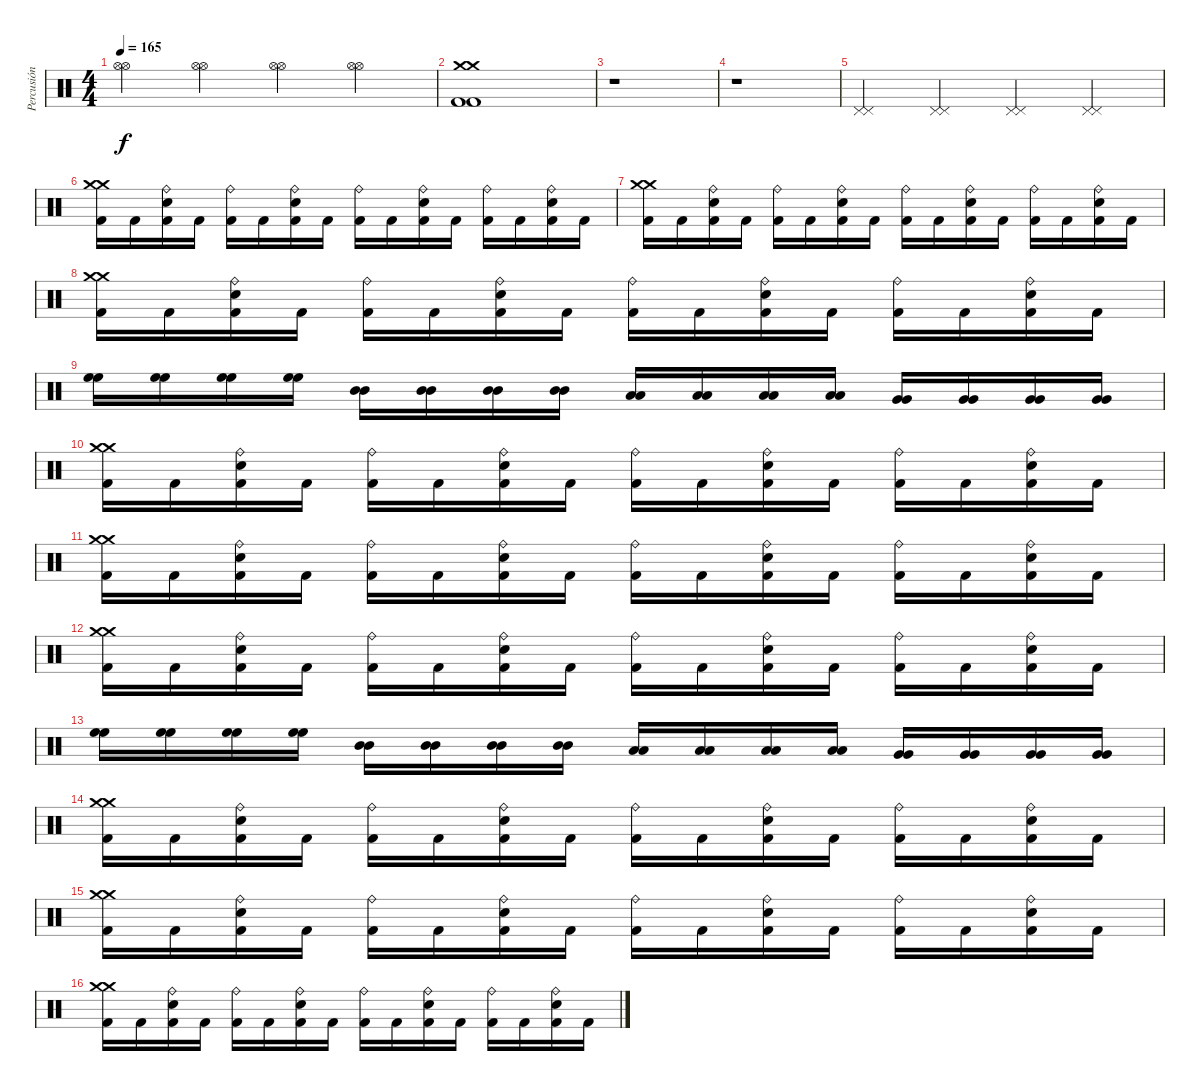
\track ("Percusión" "Percusión") {instrument percussion}
\staff {score}
\articulation defaults
\ts (4 4)
\tempo 165
\clef neutral
\ks c
("Hi-Hat (open)" "Hi-Hat (open)").4{dy f} ("Hi-Hat (open)" "Hi-Hat (open)").4 ("Hi-Hat (open)" "Hi-Hat (open)").4 ("Hi-Hat (open)" "Hi-Hat (open)").4 |
("Crash medium (hit)" "Crash medium (hit)" "Kick (hit) 2" "Kick (hit) 2").1 |
r.1 |
r.1 |
("Pedal Hi-Hat (hit)" "Pedal Hi-Hat (hit)").4 ("Pedal Hi-Hat (hit)" "Pedal Hi-Hat (hit)").4 ("Pedal Hi-Hat (hit)" "Pedal Hi-Hat (hit)").4 ("Pedal Hi-Hat (hit)" "Pedal Hi-Hat (hit)").4 |
("Crash medium (hit)" "Crash medium (hit)" "Kick (hit) 2").16 "Kick (hit) 2".16 ("Ride (bell)" "Snare (hit) 2" "Kick (hit) 2").16 "Kick (hit) 2".16 ("Ride (bell)" "Kick (hit) 2").16 "Kick (hit) 2".16 ("Ride (bell)" "Snare (hit) 2" "Kick (hit) 2").16 "Kick (hit) 2".16 ("Ride (bell)" "Kick (hit) 2").16 "Kick (hit) 2".16 ("Ride (bell)" "Snare (hit) 2" "Kick (hit) 2").16 "Kick (hit) 2".16 ("Ride (bell)" "Kick (hit) 2").16 "Kick (hit) 2".16 ("Ride (bell)" "Snare (hit) 2" "Kick (hit) 2").16 "Kick (hit) 2".16 |
("Crash medium (hit)" "Crash medium (hit)" "Kick (hit) 2").16 "Kick (hit) 2".16 ("Ride (bell)" "Snare (hit) 2" "Kick (hit) 2").16 "Kick (hit) 2".16 ("Ride (bell)" "Kick (hit) 2").16 "Kick (hit) 2".16 ("Ride (bell)" "Snare (hit) 2" "Kick (hit) 2").16 "Kick (hit) 2".16 ("Ride (bell)" "Kick (hit) 2").16 "Kick (hit) 2".16 ("Ride (bell)" "Snare (hit) 2" "Kick (hit) 2").16 "Kick (hit) 2".16 ("Ride (bell)" "Kick (hit) 2").16 "Kick (hit) 2".16 ("Ride (bell)" "Snare (hit) 2" "Kick (hit) 2").16 "Kick (hit) 2".16 |
("Crash medium (hit)" "Crash medium (hit)" "Kick (hit) 2").16 "Kick (hit) 2".16 ("Ride (bell)" "Snare (hit) 2" "Kick (hit) 2").16 "Kick (hit) 2".16 ("Ride (bell)" "Kick (hit) 2").16 "Kick (hit) 2".16 ("Ride (bell)" "Snare (hit) 2" "Kick (hit) 2").16 "Kick (hit) 2".16 ("Ride (bell)" "Kick (hit) 2").16 "Kick (hit) 2".16 ("Ride (bell)" "Snare (hit) 2" "Kick (hit) 2").16 "Kick (hit) 2".16 ("Ride (bell)" "Kick (hit) 2").16 "Kick (hit) 2".16 ("Ride (bell)" "Snare (hit) 2" "Kick (hit) 2").16 "Kick (hit) 2".16 |
("High Floor Tom (hit)" "High Floor Tom (hit)").16 ("High Floor Tom (hit)" "High Floor Tom (hit)").16 ("High Floor Tom (hit)" "High Floor Tom (hit)").16 ("High Floor Tom (hit)" "High Floor Tom (hit)").16 ("Mid Tom (hit)" "Mid Tom (hit)").16 ("Mid Tom (hit)" "Mid Tom (hit)").16 ("Mid Tom (hit)" "Mid Tom (hit)").16 ("Mid Tom (hit)" "Mid Tom (hit)").16 ("Low Tom (hit)" "Low Tom (hit)").16 ("Low Tom (hit)" "Low Tom (hit)").16 ("Low Tom (hit)" "Low Tom (hit)").16 ("Low Tom (hit)" "Low Tom (hit)").16 ("Very Low Tom (hit)" "Very Low Tom (hit)").16 ("Very Low Tom (hit)" "Very Low Tom (hit)").16 ("Very Low Tom (hit)" "Very Low Tom (hit)").16 ("Very Low Tom (hit)" "Very Low Tom (hit)").16 |
("Crash medium (hit)" "Crash medium (hit)" "Kick (hit) 2").16 "Kick (hit) 2".16 ("Ride (bell)" "Snare (hit) 2" "Kick (hit) 2").16 "Kick (hit) 2".16 ("Ride (bell)" "Kick (hit) 2").16 "Kick (hit) 2".16 ("Ride (bell)" "Snare (hit) 2" "Kick (hit) 2").16 "Kick (hit) 2".16 ("Ride (bell)" "Kick (hit) 2").16 "Kick (hit) 2".16 ("Ride (bell)" "Snare (hit) 2" "Kick (hit) 2").16 "Kick (hit) 2".16 ("Ride (bell)" "Kick (hit) 2").16 "Kick (hit) 2".16 ("Ride (bell)" "Snare (hit) 2" "Kick (hit) 2").16 "Kick (hit) 2".16 |
("Crash medium (hit)" "Crash medium (hit)" "Kick (hit) 2").16 "Kick (hit) 2".16 ("Ride (bell)" "Snare (hit) 2" "Kick (hit) 2").16 "Kick (hit) 2".16 ("Ride (bell)" "Kick (hit) 2").16 "Kick (hit) 2".16 ("Ride (bell)" "Snare (hit) 2" "Kick (hit) 2").16 "Kick (hit) 2".16 ("Ride (bell)" "Kick (hit) 2").16 "Kick (hit) 2".16 ("Ride (bell)" "Snare (hit) 2" "Kick (hit) 2").16 "Kick (hit) 2".16 ("Ride (bell)" "Kick (hit) 2").16 "Kick (hit) 2".16 ("Ride (bell)" "Snare (hit) 2" "Kick (hit) 2").16 "Kick (hit) 2".16 |
("Crash medium (hit)" "Crash medium (hit)" "Kick (hit) 2").16 "Kick (hit) 2".16 ("Ride (bell)" "Snare (hit) 2" "Kick (hit) 2").16 "Kick (hit) 2".16 ("Ride (bell)" "Kick (hit) 2").16 "Kick (hit) 2".16 ("Ride (bell)" "Snare (hit) 2" "Kick (hit) 2").16 "Kick (hit) 2".16 ("Ride (bell)" "Kick (hit) 2").16 "Kick (hit) 2".16 ("Ride (bell)" "Snare (hit) 2" "Kick (hit) 2").16 "Kick (hit) 2".16 ("Ride (bell)" "Kick (hit) 2").16 "Kick (hit) 2".16 ("Ride (bell)" "Snare (hit) 2" "Kick (hit) 2").16 "Kick (hit) 2".16 |
("High Floor Tom (hit)" "High Floor Tom (hit)").16 ("High Floor Tom (hit)" "High Floor Tom (hit)").16 ("High Floor Tom (hit)" "High Floor Tom (hit)").16 ("High Floor Tom (hit)" "High Floor Tom (hit)").16 ("Mid Tom (hit)" "Mid Tom (hit)").16 ("Mid Tom (hit)" "Mid Tom (hit)").16 ("Mid Tom (hit)" "Mid Tom (hit)").16 ("Mid Tom (hit)" "Mid Tom (hit)").16 ("Low Tom (hit)" "Low Tom (hit)").16 ("Low Tom (hit)" "Low Tom (hit)").16 ("Low Tom (hit)" "Low Tom (hit)").16 ("Low Tom (hit)" "Low Tom (hit)").16 ("Very Low Tom (hit)" "Very Low Tom (hit)").16 ("Very Low Tom (hit)" "Very Low Tom (hit)").16 ("Very Low Tom (hit)" "Very Low Tom (hit)").16 ("Very Low Tom (hit)" "Very Low Tom (hit)").16 |
("Crash medium (hit)" "Crash medium (hit)" "Kick (hit) 2").16 "Kick (hit) 2".16 ("Ride (bell)" "Snare (hit) 2" "Kick (hit) 2").16 "Kick (hit) 2".16 ("Ride (bell)" "Kick (hit) 2").16 "Kick (hit) 2".16 ("Ride (bell)" "Snare (hit) 2" "Kick (hit) 2").16 "Kick (hit) 2".16 ("Ride (bell)" "Kick (hit) 2").16 "Kick (hit) 2".16 ("Ride (bell)" "Snare (hit) 2" "Kick (hit) 2").16 "Kick (hit) 2".16 ("Ride (bell)" "Kick (hit) 2").16 "Kick (hit) 2".16 ("Ride (bell)" "Snare (hit) 2" "Kick (hit) 2").16 "Kick (hit) 2".16 |
("Crash medium (hit)" "Crash medium (hit)" "Kick (hit) 2").16 "Kick (hit) 2".16 ("Ride (bell)" "Snare (hit) 2" "Kick (hit) 2").16 "Kick (hit) 2".16 ("Ride (bell)" "Kick (hit) 2").16 "Kick (hit) 2".16 ("Ride (bell)" "Snare (hit) 2" "Kick (hit) 2").16 "Kick (hit) 2".16 ("Ride (bell)" "Kick (hit) 2").16 "Kick (hit) 2".16 ("Ride (bell)" "Snare (hit) 2" "Kick (hit) 2").16 "Kick (hit) 2".16 ("Ride (bell)" "Kick (hit) 2").16 "Kick (hit) 2".16 ("Ride (bell)" "Snare (hit) 2" "Kick (hit) 2").16 "Kick (hit) 2".16 |
("Crash medium (hit)" "Crash medium (hit)" "Kick (hit) 2").16 "Kick (hit) 2".16 ("Ride (bell)" "Snare (hit) 2" "Kick (hit) 2").16 "Kick (hit) 2".16 ("Ride (bell)" "Kick (hit) 2").16 "Kick (hit) 2".16 ("Ride (bell)" "Snare (hit) 2" "Kick (hit) 2").16 "Kick (hit) 2".16 ("Ride (bell)" "Kick (hit) 2").16 "Kick (hit) 2".16 ("Ride (bell)" "Snare (hit) 2" "Kick (hit) 2").16 "Kick (hit) 2".16 ("Ride (bell)" "Kick (hit) 2").16 "Kick (hit) 2".16 ("Ride (bell)" "Snare (hit) 2" "Kick (hit) 2").16 "Kick (hit) 2".16
